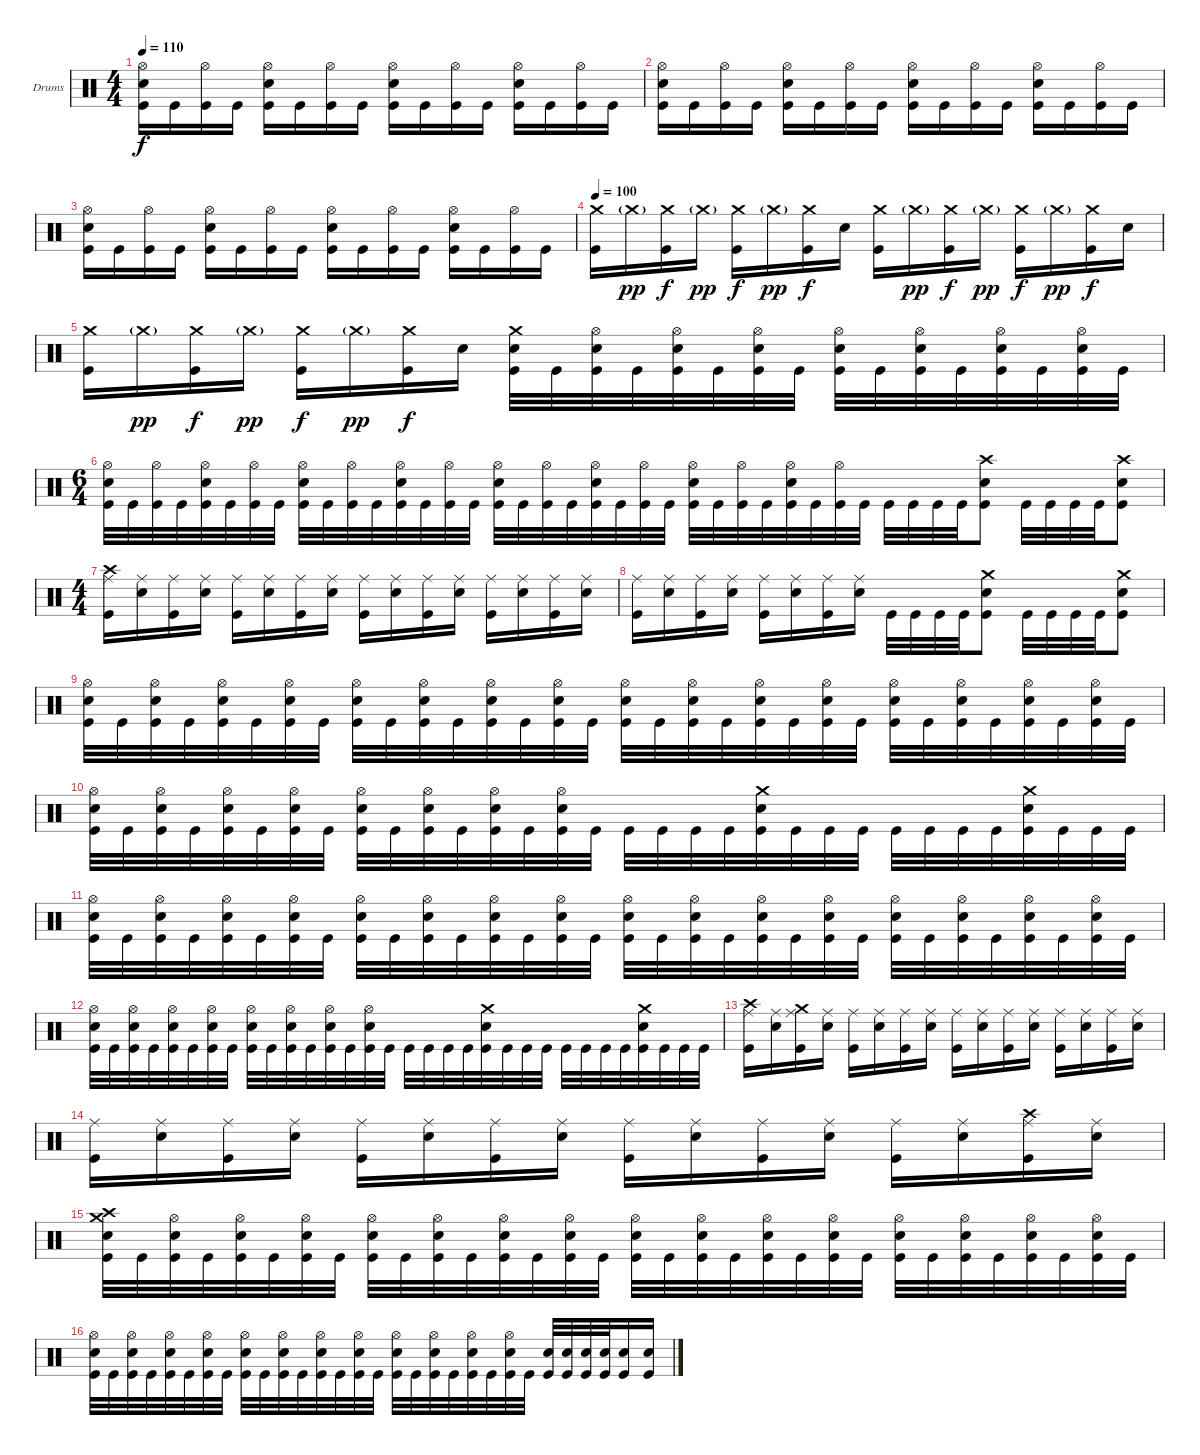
\bracketExtendMode groupsimilarinstruments
\firstSystemTrackNameOrientation horizontal
\otherSystemsTrackNameOrientation horizontal
\track ("Drumkit" "Drums") {instrument percussion}
\staff {score}
\articulation defaults
\ts (4 4)
\tempo 110
\clef neutral
\ks c
("Hi-Hat (open)" "Snare (hit) 2" "Kick (hit)").16{dy f} "Kick (hit)".16 ("Hi-Hat (open)" "Kick (hit)").16 "Kick (hit)".16 ("Hi-Hat (open)" "Snare (hit) 2" "Kick (hit)").16 "Kick (hit)".16 ("Hi-Hat (open)" "Kick (hit)").16 "Kick (hit)".16 ("Hi-Hat (open)" "Snare (hit) 2" "Kick (hit)").16 "Kick (hit)".16 ("Hi-Hat (open)" "Kick (hit)").16 "Kick (hit)".16 ("Hi-Hat (open)" "Snare (hit) 2" "Kick (hit)").16 "Kick (hit)".16 ("Hi-Hat (open)" "Kick (hit)").16 "Kick (hit)".16 |
("Hi-Hat (open)" "Snare (hit) 2" "Kick (hit)").16 "Kick (hit)".16 ("Hi-Hat (open)" "Kick (hit)").16 "Kick (hit)".16 ("Hi-Hat (open)" "Snare (hit) 2" "Kick (hit)").16 "Kick (hit)".16 ("Hi-Hat (open)" "Kick (hit)").16 "Kick (hit)".16 ("Hi-Hat (open)" "Snare (hit) 2" "Kick (hit)").16 "Kick (hit)".16 ("Hi-Hat (open)" "Kick (hit)").16 "Kick (hit)".16 ("Hi-Hat (open)" "Snare (hit) 2" "Kick (hit)").16 "Kick (hit)".16 ("Hi-Hat (open)" "Kick (hit)").16 "Kick (hit)".16 |
("Hi-Hat (open)" "Snare (hit) 2" "Kick (hit)").16 "Kick (hit)".16 ("Hi-Hat (open)" "Kick (hit)").16 "Kick (hit)".16 ("Hi-Hat (open)" "Snare (hit) 2" "Kick (hit)").16 "Kick (hit)".16 ("Hi-Hat (open)" "Kick (hit)").16 "Kick (hit)".16 ("Hi-Hat (open)" "Snare (hit) 2" "Kick (hit)").16 "Kick (hit)".16 ("Hi-Hat (open)" "Kick (hit)").16 "Kick (hit)".16 ("Hi-Hat (open)" "Snare (hit) 2" "Kick (hit)").16 "Kick (hit)".16 ("Hi-Hat (open)" "Kick (hit)").16 "Kick (hit)".16 |
\tempo 100
("Crash medium (hit)" "Kick (hit)").16 "Crash medium (hit)"{g}.16{dy pp} ("Crash medium (hit)" "Kick (hit)").16{dy f} "Crash medium (hit)"{g}.16{dy pp} ("Crash medium (hit)" "Kick (hit)").16{dy f} "Crash medium (hit)"{g}.16{dy pp} ("Crash medium (hit)" "Kick (hit)").16{dy f} "Snare (hit) 2".16 ("Crash medium (hit)" "Kick (hit)").16 "Crash medium (hit)"{g}.16{dy pp} ("Crash medium (hit)" "Kick (hit)").16{dy f} "Crash medium (hit)"{g}.16{dy pp} ("Crash medium (hit)" "Kick (hit)").16{dy f} "Crash medium (hit)"{g}.16{dy pp} ("Crash medium (hit)" "Kick (hit)").16{dy f} "Snare (hit) 2".16 |
("Crash medium (hit)" "Kick (hit)").16 "Crash medium (hit)"{g}.16{dy pp} ("Crash medium (hit)" "Kick (hit)").16{dy f} "Crash medium (hit)"{g}.16{dy pp} ("Crash medium (hit)" "Kick (hit)").16{dy f} "Crash medium (hit)"{g}.16{dy pp} ("Crash medium (hit)" "Kick (hit)").16{dy f} "Snare (hit) 2".16 ("Crash medium (hit)" "Snare (hit) 2" "Kick (hit)").32 "Kick (hit)".32 ("Hi-Hat (open)" "Snare (hit) 2" "Kick (hit)").32 "Kick (hit)".32 ("Hi-Hat (open)" "Snare (hit) 2" "Kick (hit)").32 "Kick (hit)".32 ("Hi-Hat (open)" "Snare (hit) 2" "Kick (hit)").32 "Kick (hit)".32 ("Hi-Hat (open)" "Snare (hit) 2" "Kick (hit)").32 "Kick (hit)".32 ("Hi-Hat (open)" "Snare (hit) 2" "Kick (hit)").32 "Kick (hit)".32 ("Hi-Hat (open)" "Snare (hit) 2" "Kick (hit)").32 "Kick (hit)".32 ("Hi-Hat (open)" "Snare (hit) 2" "Kick (hit)").32 "Kick (hit)".32 |
\ts (6 4)
("Hi-Hat (open)" "Snare (hit) 2" "Kick (hit)").32 "Kick (hit)".32 ("Hi-Hat (open)" "Kick (hit)").32 "Kick (hit)".32 ("Hi-Hat (open)" "Snare (hit) 2" "Kick (hit)").32 "Kick (hit)".32 ("Hi-Hat (open)" "Kick (hit)").32 "Kick (hit)".32 ("Hi-Hat (open)" "Snare (hit) 2" "Kick (hit)").32 "Kick (hit)".32 ("Hi-Hat (open)" "Kick (hit)").32 "Kick (hit)".32 ("Hi-Hat (open)" "Snare (hit) 2" "Kick (hit)").32 "Kick (hit)".32 ("Hi-Hat (open)" "Kick (hit)").32 "Kick (hit)".32 ("Hi-Hat (open)" "Snare (hit) 2" "Kick (hit)").32 "Kick (hit)".32 ("Hi-Hat (open)" "Kick (hit)").32 "Kick (hit)".32 ("Hi-Hat (open)" "Snare (hit) 2" "Kick (hit)").32 "Kick (hit)".32 ("Hi-Hat (open)" "Kick (hit)").32 "Kick (hit)".32 ("Hi-Hat (open)" "Snare (hit) 2" "Kick (hit)").32 "Kick (hit)".32 ("Hi-Hat (open)" "Kick (hit)").32 "Kick (hit)".32 ("Hi-Hat (open)" "Snare (hit) 2" "Kick (hit)").32 "Kick (hit)".32 ("Hi-Hat (open)" "Kick (hit)").32 "Kick (hit)".32 "Kick (hit)".32 "Kick (hit)".32 "Kick (hit)".32 "Kick (hit)".32 ("Crash high (hit)" "Snare (hit) 2" "Kick (hit)").8 "Kick (hit)".32 "Kick (hit)".32 "Kick (hit)".32 "Kick (hit)".32 ("Crash high (hit)" "Snare (hit) 2" "Kick (hit)").8 |
\ts (4 4)
("Crash high (hit)" "Ride (middle)" "Kick (hit)").16 ("Ride (middle)" "Snare (hit) 2").16 ("Ride (middle)" "Kick (hit)").16 ("Ride (middle)" "Snare (hit) 2").16 ("Ride (middle)" "Kick (hit)").16 ("Ride (middle)" "Snare (hit) 2").16 ("Ride (middle)" "Kick (hit)").16 ("Ride (middle)" "Snare (hit) 2").16 ("Ride (middle)" "Kick (hit)").16 ("Ride (middle)" "Snare (hit) 2").16 ("Ride (middle)" "Kick (hit)").16 ("Ride (middle)" "Snare (hit) 2").16 ("Ride (middle)" "Kick (hit)").16 ("Ride (middle)" "Snare (hit) 2").16 ("Ride (middle)" "Kick (hit)").16 ("Ride (middle)" "Snare (hit) 2").16 |
("Ride (middle)" "Kick (hit)").16 ("Ride (middle)" "Snare (hit) 2").16 ("Ride (middle)" "Kick (hit)").16 ("Ride (middle)" "Snare (hit) 2").16 ("Ride (middle)" "Kick (hit)").16 ("Ride (middle)" "Snare (hit) 2").16 ("Ride (middle)" "Kick (hit)").16 ("Ride (middle)" "Snare (hit) 2").16 "Kick (hit)".32 "Kick (hit)".32 "Kick (hit)".32 "Kick (hit)".32 ("Crash medium (hit)" "Snare (hit) 2" "Kick (hit)").8 "Kick (hit)".32 "Kick (hit)".32 "Kick (hit)".32 "Kick (hit)".32 ("Crash medium (hit)" "Snare (hit) 2" "Kick (hit)").8 |
("Hi-Hat (open)" "Snare (hit) 2" "Kick (hit)").32 "Kick (hit)".32 ("Hi-Hat (open)" "Snare (hit) 2" "Kick (hit)").32 "Kick (hit)".32 ("Hi-Hat (open)" "Snare (hit) 2" "Kick (hit)").32 "Kick (hit)".32 ("Hi-Hat (open)" "Snare (hit) 2" "Kick (hit)").32 "Kick (hit)".32 ("Hi-Hat (open)" "Snare (hit) 2" "Kick (hit)").32 "Kick (hit)".32 ("Hi-Hat (open)" "Snare (hit) 2" "Kick (hit)").32 "Kick (hit)".32 ("Hi-Hat (open)" "Snare (hit) 2" "Kick (hit)").32 "Kick (hit)".32 ("Hi-Hat (open)" "Snare (hit) 2" "Kick (hit)").32 "Kick (hit)".32 ("Hi-Hat (open)" "Snare (hit) 2" "Kick (hit)").32 "Kick (hit)".32 ("Hi-Hat (open)" "Snare (hit) 2" "Kick (hit)").32 "Kick (hit)".32 ("Hi-Hat (open)" "Snare (hit) 2" "Kick (hit)").32 "Kick (hit)".32 ("Hi-Hat (open)" "Snare (hit) 2" "Kick (hit)").32 "Kick (hit)".32 ("Hi-Hat (open)" "Snare (hit) 2" "Kick (hit)").32 "Kick (hit)".32 ("Hi-Hat (open)" "Snare (hit) 2" "Kick (hit)").32 "Kick (hit)".32 ("Hi-Hat (open)" "Snare (hit) 2" "Kick (hit)").32 "Kick (hit)".32 ("Hi-Hat (open)" "Snare (hit) 2" "Kick (hit)").32 "Kick (hit)".32 |
("Hi-Hat (open)" "Snare (hit) 2" "Kick (hit)").32 "Kick (hit)".32 ("Hi-Hat (open)" "Snare (hit) 2" "Kick (hit)").32 "Kick (hit)".32 ("Hi-Hat (open)" "Snare (hit) 2" "Kick (hit)").32 "Kick (hit)".32 ("Hi-Hat (open)" "Snare (hit) 2" "Kick (hit)").32 "Kick (hit)".32 ("Hi-Hat (open)" "Snare (hit) 2" "Kick (hit)").32 "Kick (hit)".32 ("Hi-Hat (open)" "Snare (hit) 2" "Kick (hit)").32 "Kick (hit)".32 ("Hi-Hat (open)" "Snare (hit) 2" "Kick (hit)").32 "Kick (hit)".32 ("Hi-Hat (open)" "Snare (hit) 2" "Kick (hit)").32 "Kick (hit)".32 "Kick (hit)".32 "Kick (hit)".32 "Kick (hit)".32 "Kick (hit)".32 ("Crash medium (hit)" "Snare (hit) 2" "Kick (hit)").32 "Kick (hit)".32 "Kick (hit)".32 "Kick (hit)".32 "Kick (hit)".32 "Kick (hit)".32 "Kick (hit)".32 "Kick (hit)".32 ("Crash medium (hit)" "Snare (hit) 2" "Kick (hit)").32 "Kick (hit)".32 "Kick (hit)".32 "Kick (hit)".32 |
("Hi-Hat (open)" "Snare (hit) 2" "Kick (hit)").32 "Kick (hit)".32 ("Hi-Hat (open)" "Snare (hit) 2" "Kick (hit)").32 "Kick (hit)".32 ("Hi-Hat (open)" "Snare (hit) 2" "Kick (hit)").32 "Kick (hit)".32 ("Hi-Hat (open)" "Snare (hit) 2" "Kick (hit)").32 "Kick (hit)".32 ("Hi-Hat (open)" "Snare (hit) 2" "Kick (hit)").32 "Kick (hit)".32 ("Hi-Hat (open)" "Snare (hit) 2" "Kick (hit)").32 "Kick (hit)".32 ("Hi-Hat (open)" "Snare (hit) 2" "Kick (hit)").32 "Kick (hit)".32 ("Hi-Hat (open)" "Snare (hit) 2" "Kick (hit)").32 "Kick (hit)".32 ("Hi-Hat (open)" "Snare (hit) 2" "Kick (hit)").32 "Kick (hit)".32 ("Hi-Hat (open)" "Snare (hit) 2" "Kick (hit)").32 "Kick (hit)".32 ("Hi-Hat (open)" "Snare (hit) 2" "Kick (hit)").32 "Kick (hit)".32 ("Hi-Hat (open)" "Snare (hit) 2" "Kick (hit)").32 "Kick (hit)".32 ("Hi-Hat (open)" "Snare (hit) 2" "Kick (hit)").32 "Kick (hit)".32 ("Hi-Hat (open)" "Snare (hit) 2" "Kick (hit)").32 "Kick (hit)".32 ("Hi-Hat (open)" "Snare (hit) 2" "Kick (hit)").32 "Kick (hit)".32 ("Hi-Hat (open)" "Snare (hit) 2" "Kick (hit)").32 "Kick (hit)".32 |
("Hi-Hat (open)" "Snare (hit) 2" "Kick (hit)").32 "Kick (hit)".32 ("Hi-Hat (open)" "Snare (hit) 2" "Kick (hit)").32 "Kick (hit)".32 ("Hi-Hat (open)" "Snare (hit) 2" "Kick (hit)").32 "Kick (hit)".32 ("Hi-Hat (open)" "Snare (hit) 2" "Kick (hit)").32 "Kick (hit)".32 ("Hi-Hat (open)" "Snare (hit) 2" "Kick (hit)").32 "Kick (hit)".32 ("Hi-Hat (open)" "Snare (hit) 2" "Kick (hit)").32 "Kick (hit)".32 ("Hi-Hat (open)" "Snare (hit) 2" "Kick (hit)").32 "Kick (hit)".32 ("Hi-Hat (open)" "Snare (hit) 2" "Kick (hit)").32 "Kick (hit)".32 "Kick (hit)".32 "Kick (hit)".32 "Kick (hit)".32 "Kick (hit)".32 ("Crash medium (hit)" "Snare (hit) 2" "Kick (hit)").32 "Kick (hit)".32 "Kick (hit)".32 "Kick (hit)".32 "Kick (hit)".32 "Kick (hit)".32 "Kick (hit)".32 "Kick (hit)".32 ("Crash medium (hit)" "Snare (hit) 2" "Kick (hit)").32 "Kick (hit)".32 "Kick (hit)".32 "Kick (hit)".32 |
("Crash high (hit)" "Ride (middle)" "Kick (hit)").16 ("Ride (middle)" "Snare (hit) 2").16 ("Crash medium (hit)" "Ride (middle)" "Kick (hit)").16 ("Ride (middle)" "Snare (hit) 2").16 ("Ride (middle)" "Kick (hit)").16 ("Ride (middle)" "Snare (hit) 2").16 ("Ride (middle)" "Kick (hit)").16 ("Ride (middle)" "Snare (hit) 2").16 ("Ride (middle)" "Kick (hit)").16 ("Ride (middle)" "Snare (hit) 2").16 ("Ride (middle)" "Kick (hit)").16 ("Ride (middle)" "Snare (hit) 2").16 ("Ride (middle)" "Kick (hit)").16 ("Ride (middle)" "Snare (hit) 2").16 ("Ride (middle)" "Kick (hit)").16 ("Ride (middle)" "Snare (hit) 2").16 |
("Ride (middle)" "Kick (hit)").16 ("Ride (middle)" "Snare (hit) 2").16 ("Ride (middle)" "Kick (hit)").16 ("Ride (middle)" "Snare (hit) 2").16 ("Ride (middle)" "Kick (hit)").16 ("Ride (middle)" "Snare (hit) 2").16 ("Ride (middle)" "Kick (hit)").16 ("Ride (middle)" "Snare (hit) 2").16 ("Ride (middle)" "Kick (hit)").16 ("Ride (middle)" "Snare (hit) 2").16 ("Ride (middle)" "Kick (hit)").16 ("Ride (middle)" "Snare (hit) 2").16 ("Ride (middle)" "Kick (hit)").16 ("Ride (middle)" "Snare (hit) 2").16 ("Crash high (hit)" "Ride (middle)" "Kick (hit)").16 ("Ride (middle)" "Snare (hit) 2").16 |
("Crash high (hit)" "Crash medium (hit)" "Snare (hit) 2" "Kick (hit)").32 "Kick (hit)".32 ("Hi-Hat (open)" "Snare (hit) 2" "Kick (hit)").32 "Kick (hit)".32 ("Hi-Hat (open)" "Snare (hit) 2" "Kick (hit)").32 "Kick (hit)".32 ("Hi-Hat (open)" "Snare (hit) 2" "Kick (hit)").32 "Kick (hit)".32 ("Hi-Hat (open)" "Snare (hit) 2" "Kick (hit)").32 "Kick (hit)".32 ("Hi-Hat (open)" "Snare (hit) 2" "Kick (hit)").32 "Kick (hit)".32 ("Hi-Hat (open)" "Snare (hit) 2" "Kick (hit)").32 "Kick (hit)".32 ("Hi-Hat (open)" "Snare (hit) 2" "Kick (hit)").32 "Kick (hit)".32 ("Hi-Hat (open)" "Snare (hit) 2" "Kick (hit)").32 "Kick (hit)".32 ("Hi-Hat (open)" "Snare (hit) 2" "Kick (hit)").32 "Kick (hit)".32 ("Hi-Hat (open)" "Snare (hit) 2" "Kick (hit)").32 "Kick (hit)".32 ("Hi-Hat (open)" "Snare (hit) 2" "Kick (hit)").32 "Kick (hit)".32 ("Hi-Hat (open)" "Snare (hit) 2" "Kick (hit)").32 "Kick (hit)".32 ("Hi-Hat (open)" "Snare (hit) 2" "Kick (hit)").32 "Kick (hit)".32 ("Hi-Hat (open)" "Snare (hit) 2" "Kick (hit)").32 "Kick (hit)".32 ("Hi-Hat (open)" "Snare (hit) 2" "Kick (hit)").32 "Kick (hit)".32 |
("Hi-Hat (open)" "Snare (hit) 2" "Kick (hit)").32 "Kick (hit)".32 ("Hi-Hat (open)" "Snare (hit) 2" "Kick (hit)").32 "Kick (hit)".32 ("Hi-Hat (open)" "Snare (hit) 2" "Kick (hit)").32 "Kick (hit)".32 ("Hi-Hat (open)" "Snare (hit) 2" "Kick (hit)").32 "Kick (hit)".32 ("Hi-Hat (open)" "Snare (hit) 2" "Kick (hit)").32 "Kick (hit)".32 ("Hi-Hat (open)" "Snare (hit) 2" "Kick (hit)").32 "Kick (hit)".32 ("Hi-Hat (open)" "Snare (hit) 2" "Kick (hit)").32 "Kick (hit)".32 ("Hi-Hat (open)" "Snare (hit) 2" "Kick (hit)").32 "Kick (hit)".32 ("Hi-Hat (open)" "Snare (hit) 2" "Kick (hit)").32 "Kick (hit)".32 ("Hi-Hat (open)" "Snare (hit) 2" "Kick (hit)").32 "Kick (hit)".32 ("Hi-Hat (open)" "Snare (hit) 2" "Kick (hit)").32 "Kick (hit)".32 ("Hi-Hat (open)" "Snare (hit) 2" "Kick (hit)").32 "Kick (hit)".32 ("Snare (hit) 2" "Kick (hit)").32 ("Snare (hit) 2" "Kick (hit)").32 ("Snare (hit) 2" "Kick (hit)").32 ("Snare (hit) 2" "Kick (hit)").32 ("Snare (hit) 2" "Kick (hit)").16 ("Snare (hit) 2" "Kick (hit)").16
